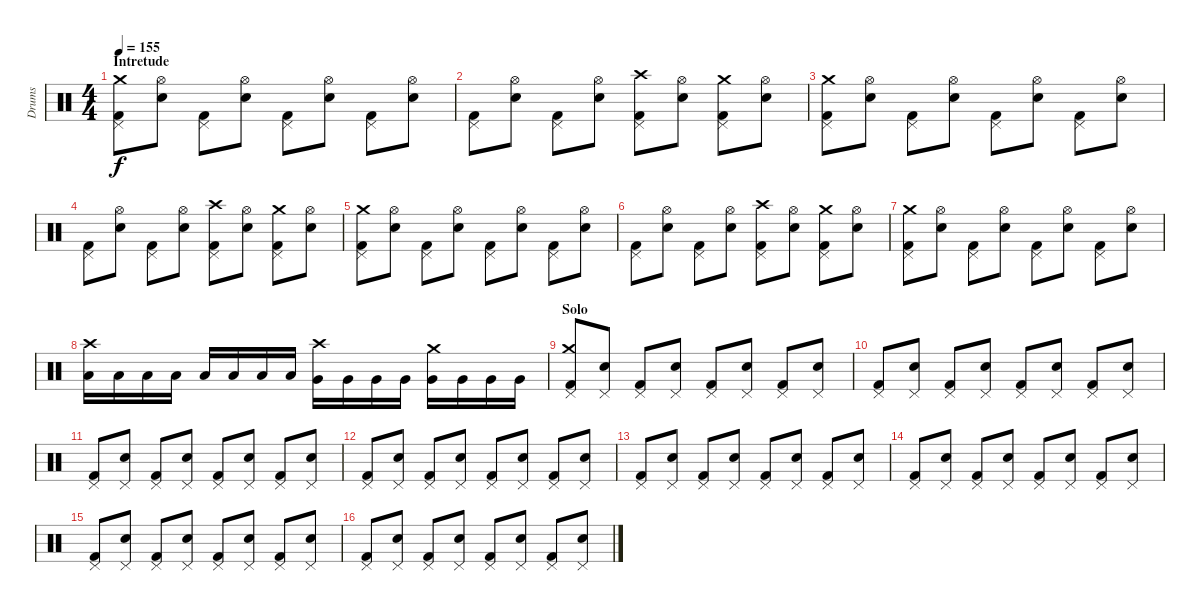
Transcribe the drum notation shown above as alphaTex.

\track ("Drums" "Drums") {instrument percussion}
\staff {score}
\articulation defaults
\ts (4 4)
\section ("" "Intretude")
\tempo 155
\clef neutral
\ks c
("Pedal Hi-Hat (hit)" "Crash medium (hit)" "Kick (hit) 2").8{dy f} ("Hi-Hat (open)" "Electric Snare (hit)").8 ("Pedal Hi-Hat (hit)" "Kick (hit) 2").8 ("Hi-Hat (open)" "Electric Snare (hit)").8 ("Pedal Hi-Hat (hit)" "Kick (hit) 2").8 ("Hi-Hat (open)" "Electric Snare (hit)").8 ("Pedal Hi-Hat (hit)" "Kick (hit) 2").8 ("Hi-Hat (open)" "Electric Snare (hit)").8 |
("Pedal Hi-Hat (hit)" "Kick (hit) 2").8 ("Hi-Hat (open)" "Electric Snare (hit)").8 ("Pedal Hi-Hat (hit)" "Kick (hit) 2").8 ("Hi-Hat (open)" "Electric Snare (hit)").8 ("Pedal Hi-Hat (hit)" "Crash high (hit)" "Kick (hit) 2").8 ("Hi-Hat (open)" "Electric Snare (hit)").8 ("Pedal Hi-Hat (hit)" "Crash medium (hit)" "Kick (hit) 2").8 ("Hi-Hat (open)" "Electric Snare (hit)").8 |
("Pedal Hi-Hat (hit)" "Crash medium (hit)" "Kick (hit) 2").8 ("Hi-Hat (open)" "Electric Snare (hit)").8 ("Pedal Hi-Hat (hit)" "Kick (hit) 2").8 ("Hi-Hat (open)" "Electric Snare (hit)").8 ("Pedal Hi-Hat (hit)" "Kick (hit) 2").8 ("Hi-Hat (open)" "Electric Snare (hit)").8 ("Pedal Hi-Hat (hit)" "Kick (hit) 2").8 ("Hi-Hat (open)" "Electric Snare (hit)").8 |
("Pedal Hi-Hat (hit)" "Kick (hit) 2").8 ("Hi-Hat (open)" "Electric Snare (hit)").8 ("Pedal Hi-Hat (hit)" "Kick (hit) 2").8 ("Hi-Hat (open)" "Electric Snare (hit)").8 ("Pedal Hi-Hat (hit)" "Crash high (hit)" "Kick (hit) 2").8 ("Hi-Hat (open)" "Electric Snare (hit)").8 ("Pedal Hi-Hat (hit)" "Crash medium (hit)" "Kick (hit) 2").8 ("Hi-Hat (open)" "Electric Snare (hit)").8 |
("Pedal Hi-Hat (hit)" "Crash medium (hit)" "Kick (hit) 2").8 ("Hi-Hat (open)" "Electric Snare (hit)").8 ("Pedal Hi-Hat (hit)" "Kick (hit) 2").8 ("Hi-Hat (open)" "Electric Snare (hit)").8 ("Pedal Hi-Hat (hit)" "Kick (hit) 2").8 ("Hi-Hat (open)" "Electric Snare (hit)").8 ("Pedal Hi-Hat (hit)" "Kick (hit) 2").8 ("Hi-Hat (open)" "Electric Snare (hit)").8 |
("Pedal Hi-Hat (hit)" "Kick (hit) 2").8 ("Hi-Hat (open)" "Electric Snare (hit)").8 ("Pedal Hi-Hat (hit)" "Kick (hit) 2").8 ("Hi-Hat (open)" "Electric Snare (hit)").8 ("Pedal Hi-Hat (hit)" "Crash high (hit)" "Kick (hit) 2").8 ("Hi-Hat (open)" "Electric Snare (hit)").8 ("Pedal Hi-Hat (hit)" "Crash medium (hit)" "Kick (hit) 2").8 ("Hi-Hat (open)" "Electric Snare (hit)").8 |
("Pedal Hi-Hat (hit)" "Crash medium (hit)" "Kick (hit) 2").8 ("Hi-Hat (open)" "Electric Snare (hit)").8 ("Pedal Hi-Hat (hit)" "Kick (hit) 2").8 ("Hi-Hat (open)" "Electric Snare (hit)").8 ("Pedal Hi-Hat (hit)" "Kick (hit) 2").8 ("Hi-Hat (open)" "Electric Snare (hit)").8 ("Pedal Hi-Hat (hit)" "Kick (hit) 2").8 ("Hi-Hat (open)" "Electric Snare (hit)").8 |
("Crash high (hit)" "Low Tom (hit)").16 "Low Tom (hit)".16 "Low Tom (hit)".16 "Low Tom (hit)".16 "Low Tom (hit)".16 "Low Tom (hit)".16 "Low Tom (hit)".16 "Low Tom (hit)".16 ("Crash high (hit)" "Very Low Tom (hit)").16 "Very Low Tom (hit)".16 "Very Low Tom (hit)".16 "Very Low Tom (hit)".16 ("Crash medium (hit)" "Very Low Tom (hit)").16 "Very Low Tom (hit)".16 "Very Low Tom (hit)".16 "Very Low Tom (hit)".16 |
\section ("" "Solo")
("Pedal Hi-Hat (hit)" "Crash medium (hit)" "Kick (hit) 2").8 ("Pedal Hi-Hat (hit)" "Electric Snare (hit)").8 ("Pedal Hi-Hat (hit)" "Kick (hit) 2").8 ("Pedal Hi-Hat (hit)" "Electric Snare (hit)").8 ("Pedal Hi-Hat (hit)" "Kick (hit) 2").8 ("Pedal Hi-Hat (hit)" "Electric Snare (hit)").8 ("Pedal Hi-Hat (hit)" "Kick (hit) 2").8 ("Pedal Hi-Hat (hit)" "Electric Snare (hit)").8 |
("Pedal Hi-Hat (hit)" "Kick (hit) 2").8 ("Pedal Hi-Hat (hit)" "Electric Snare (hit)").8 ("Pedal Hi-Hat (hit)" "Kick (hit) 2").8 ("Pedal Hi-Hat (hit)" "Electric Snare (hit)").8 ("Pedal Hi-Hat (hit)" "Kick (hit) 2").8 ("Pedal Hi-Hat (hit)" "Electric Snare (hit)").8 ("Pedal Hi-Hat (hit)" "Kick (hit) 2").8 ("Pedal Hi-Hat (hit)" "Electric Snare (hit)").8 |
("Pedal Hi-Hat (hit)" "Kick (hit) 2").8 ("Pedal Hi-Hat (hit)" "Electric Snare (hit)").8 ("Pedal Hi-Hat (hit)" "Kick (hit) 2").8 ("Pedal Hi-Hat (hit)" "Electric Snare (hit)").8 ("Pedal Hi-Hat (hit)" "Kick (hit) 2").8 ("Pedal Hi-Hat (hit)" "Electric Snare (hit)").8 ("Pedal Hi-Hat (hit)" "Kick (hit) 2").8 ("Pedal Hi-Hat (hit)" "Electric Snare (hit)").8 |
("Pedal Hi-Hat (hit)" "Kick (hit) 2").8 ("Pedal Hi-Hat (hit)" "Electric Snare (hit)").8 ("Pedal Hi-Hat (hit)" "Kick (hit) 2").8 ("Pedal Hi-Hat (hit)" "Electric Snare (hit)").8 ("Pedal Hi-Hat (hit)" "Kick (hit) 2").8 ("Pedal Hi-Hat (hit)" "Electric Snare (hit)").8 ("Pedal Hi-Hat (hit)" "Kick (hit) 2").8 ("Pedal Hi-Hat (hit)" "Electric Snare (hit)").8 |
("Pedal Hi-Hat (hit)" "Kick (hit) 2").8 ("Pedal Hi-Hat (hit)" "Electric Snare (hit)").8 ("Pedal Hi-Hat (hit)" "Kick (hit) 2").8 ("Pedal Hi-Hat (hit)" "Electric Snare (hit)").8 ("Pedal Hi-Hat (hit)" "Kick (hit) 2").8 ("Pedal Hi-Hat (hit)" "Electric Snare (hit)").8 ("Pedal Hi-Hat (hit)" "Kick (hit) 2").8 ("Pedal Hi-Hat (hit)" "Electric Snare (hit)").8 |
("Pedal Hi-Hat (hit)" "Kick (hit) 2").8 ("Pedal Hi-Hat (hit)" "Electric Snare (hit)").8 ("Pedal Hi-Hat (hit)" "Kick (hit) 2").8 ("Pedal Hi-Hat (hit)" "Electric Snare (hit)").8 ("Pedal Hi-Hat (hit)" "Kick (hit) 2").8 ("Pedal Hi-Hat (hit)" "Electric Snare (hit)").8 ("Pedal Hi-Hat (hit)" "Kick (hit) 2").8 ("Pedal Hi-Hat (hit)" "Electric Snare (hit)").8 |
("Pedal Hi-Hat (hit)" "Kick (hit) 2").8 ("Pedal Hi-Hat (hit)" "Electric Snare (hit)").8 ("Pedal Hi-Hat (hit)" "Kick (hit) 2").8 ("Pedal Hi-Hat (hit)" "Electric Snare (hit)").8 ("Pedal Hi-Hat (hit)" "Kick (hit) 2").8 ("Pedal Hi-Hat (hit)" "Electric Snare (hit)").8 ("Pedal Hi-Hat (hit)" "Kick (hit) 2").8 ("Pedal Hi-Hat (hit)" "Electric Snare (hit)").8 |
("Pedal Hi-Hat (hit)" "Kick (hit) 2").8 ("Pedal Hi-Hat (hit)" "Electric Snare (hit)").8 ("Pedal Hi-Hat (hit)" "Kick (hit) 2").8 ("Pedal Hi-Hat (hit)" "Electric Snare (hit)").8 ("Pedal Hi-Hat (hit)" "Kick (hit) 2").8 ("Pedal Hi-Hat (hit)" "Electric Snare (hit)").8 ("Pedal Hi-Hat (hit)" "Kick (hit) 2").8 ("Pedal Hi-Hat (hit)" "Electric Snare (hit)").8
